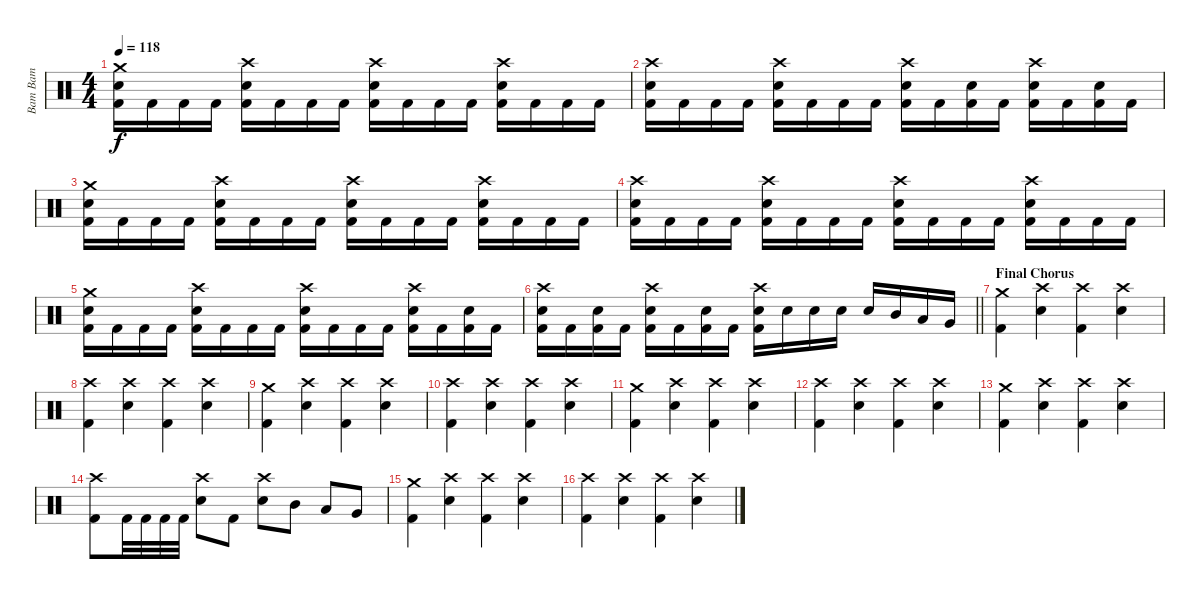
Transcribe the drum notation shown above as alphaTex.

\track ("Bam Bam" "Bam Bam") {instrument percussion}
\staff {score}
\articulation defaults
\ts (4 4)
\tempo 118
\clef neutral
\ks c
("Crash medium (hit)" "Electric Snare (hit)" "Kick (hit) 2").16{dy f} "Kick (hit) 2".16 "Kick (hit) 2".16 "Kick (hit) 2".16 ("Crash high (hit)" "Electric Snare (hit)" "Kick (hit) 2").16 "Kick (hit) 2".16 "Kick (hit) 2".16 "Kick (hit) 2".16 ("Crash high (hit)" "Electric Snare (hit)" "Kick (hit) 2").16 "Kick (hit) 2".16 "Kick (hit) 2".16 "Kick (hit) 2".16 ("Crash high (hit)" "Electric Snare (hit)" "Kick (hit) 2").16 "Kick (hit) 2".16 "Kick (hit) 2".16 "Kick (hit) 2".16 |
("Crash high (hit)" "Electric Snare (hit)" "Kick (hit) 2").16 "Kick (hit) 2".16 "Kick (hit) 2".16 "Kick (hit) 2".16 ("Crash high (hit)" "Electric Snare (hit)" "Kick (hit) 2").16 "Kick (hit) 2".16 "Kick (hit) 2".16 "Kick (hit) 2".16 ("Crash high (hit)" "Electric Snare (hit)" "Kick (hit) 2").16 "Kick (hit) 2".16 ("Electric Snare (hit)" "Kick (hit) 2").16 "Kick (hit) 2".16 ("Crash high (hit)" "Electric Snare (hit)" "Kick (hit) 2").16 "Kick (hit) 2".16 ("Electric Snare (hit)" "Kick (hit) 2").16 "Kick (hit) 2".16 |
("Crash medium (hit)" "Electric Snare (hit)" "Kick (hit) 2").16 "Kick (hit) 2".16 "Kick (hit) 2".16 "Kick (hit) 2".16 ("Crash high (hit)" "Electric Snare (hit)" "Kick (hit) 2").16 "Kick (hit) 2".16 "Kick (hit) 2".16 "Kick (hit) 2".16 ("Crash high (hit)" "Electric Snare (hit)" "Kick (hit) 2").16 "Kick (hit) 2".16 "Kick (hit) 2".16 "Kick (hit) 2".16 ("Crash high (hit)" "Electric Snare (hit)" "Kick (hit) 2").16 "Kick (hit) 2".16 "Kick (hit) 2".16 "Kick (hit) 2".16 |
("Crash high (hit)" "Electric Snare (hit)" "Kick (hit) 2").16 "Kick (hit) 2".16 "Kick (hit) 2".16 "Kick (hit) 2".16 ("Crash high (hit)" "Electric Snare (hit)" "Kick (hit) 2").16 "Kick (hit) 2".16 "Kick (hit) 2".16 "Kick (hit) 2".16 ("Crash high (hit)" "Electric Snare (hit)" "Kick (hit) 2").16 "Kick (hit) 2".16 "Kick (hit) 2".16 "Kick (hit) 2".16 ("Crash high (hit)" "Electric Snare (hit)" "Kick (hit) 2").16 "Kick (hit) 2".16 "Kick (hit) 2".16 "Kick (hit) 2".16 |
("Crash medium (hit)" "Electric Snare (hit)" "Kick (hit) 2").16 "Kick (hit) 2".16 "Kick (hit) 2".16 "Kick (hit) 2".16 ("Crash high (hit)" "Electric Snare (hit)" "Kick (hit) 2").16 "Kick (hit) 2".16 "Kick (hit) 2".16 "Kick (hit) 2".16 ("Crash high (hit)" "Electric Snare (hit)" "Kick (hit) 2").16 "Kick (hit) 2".16 "Kick (hit) 2".16 "Kick (hit) 2".16 ("Crash high (hit)" "Electric Snare (hit)" "Kick (hit) 2").16 "Kick (hit) 2".16 ("Electric Snare (hit)" "Kick (hit) 2").16 "Kick (hit) 2".16 |
\barLineRight lightlight
("Crash high (hit)" "Electric Snare (hit)" "Kick (hit) 2").16 "Kick (hit) 2".16 ("Electric Snare (hit)" "Kick (hit) 2").16 "Kick (hit) 2".16 ("Crash high (hit)" "Electric Snare (hit)" "Kick (hit) 2").16 "Kick (hit) 2".16 ("Electric Snare (hit)" "Kick (hit) 2").16 "Kick (hit) 2".16 ("Crash high (hit)" "Electric Snare (hit)" "Kick (hit) 2").16 "Electric Snare (hit)".16 "Electric Snare (hit)".16 "Electric Snare (hit)".16 "Electric Snare (hit)".16 "Mid Tom (hit)".16 "Low Tom (hit)".16 "Very Low Tom (hit)".16 |
\section ("" "Final Chorus")
("Crash medium (hit)" "Kick (hit) 2").4 ("Crash high (hit)" "Electric Snare (hit)").4 ("Crash high (hit)" "Kick (hit) 2").4 ("Crash high (hit)" "Electric Snare (hit)").4 |
("Crash high (hit)" "Kick (hit) 2").4 ("Crash high (hit)" "Electric Snare (hit)").4 ("Crash high (hit)" "Kick (hit) 2").4 ("Crash high (hit)" "Electric Snare (hit)").4 |
("Crash medium (hit)" "Kick (hit) 2").4 ("Crash high (hit)" "Electric Snare (hit)").4 ("Crash high (hit)" "Kick (hit) 2").4 ("Crash high (hit)" "Electric Snare (hit)").4 |
("Crash high (hit)" "Kick (hit) 2").4 ("Crash high (hit)" "Electric Snare (hit)").4 ("Crash high (hit)" "Kick (hit) 2").4 ("Crash high (hit)" "Electric Snare (hit)").4 |
("Crash medium (hit)" "Kick (hit) 2").4 ("Crash high (hit)" "Electric Snare (hit)").4 ("Crash high (hit)" "Kick (hit) 2").4 ("Crash high (hit)" "Electric Snare (hit)").4 |
("Crash high (hit)" "Kick (hit) 2").4 ("Crash high (hit)" "Electric Snare (hit)").4 ("Crash high (hit)" "Kick (hit) 2").4 ("Crash high (hit)" "Electric Snare (hit)").4 |
("Crash medium (hit)" "Kick (hit) 2").4 ("Crash high (hit)" "Electric Snare (hit)").4 ("Crash high (hit)" "Kick (hit) 2").4 ("Crash high (hit)" "Electric Snare (hit)").4 |
("Crash high (hit)" "Kick (hit) 2").8 "Kick (hit) 2".32 "Kick (hit) 2".32 "Kick (hit) 2".32 "Kick (hit) 2".32 ("Crash high (hit)" "Electric Snare (hit)").8 "Kick (hit) 2".8 ("Crash high (hit)" "Electric Snare (hit)").8 "Mid Tom (hit)".8 "Low Tom (hit)".8 "Very Low Tom (hit)".8 |
("Crash medium (hit)" "Kick (hit) 2").4 ("Crash high (hit)" "Electric Snare (hit)").4 ("Crash high (hit)" "Kick (hit) 2").4 ("Crash high (hit)" "Electric Snare (hit)").4 |
("Crash high (hit)" "Kick (hit) 2").4 ("Crash high (hit)" "Electric Snare (hit)").4 ("Crash high (hit)" "Kick (hit) 2").4 ("Crash high (hit)" "Electric Snare (hit)").4
